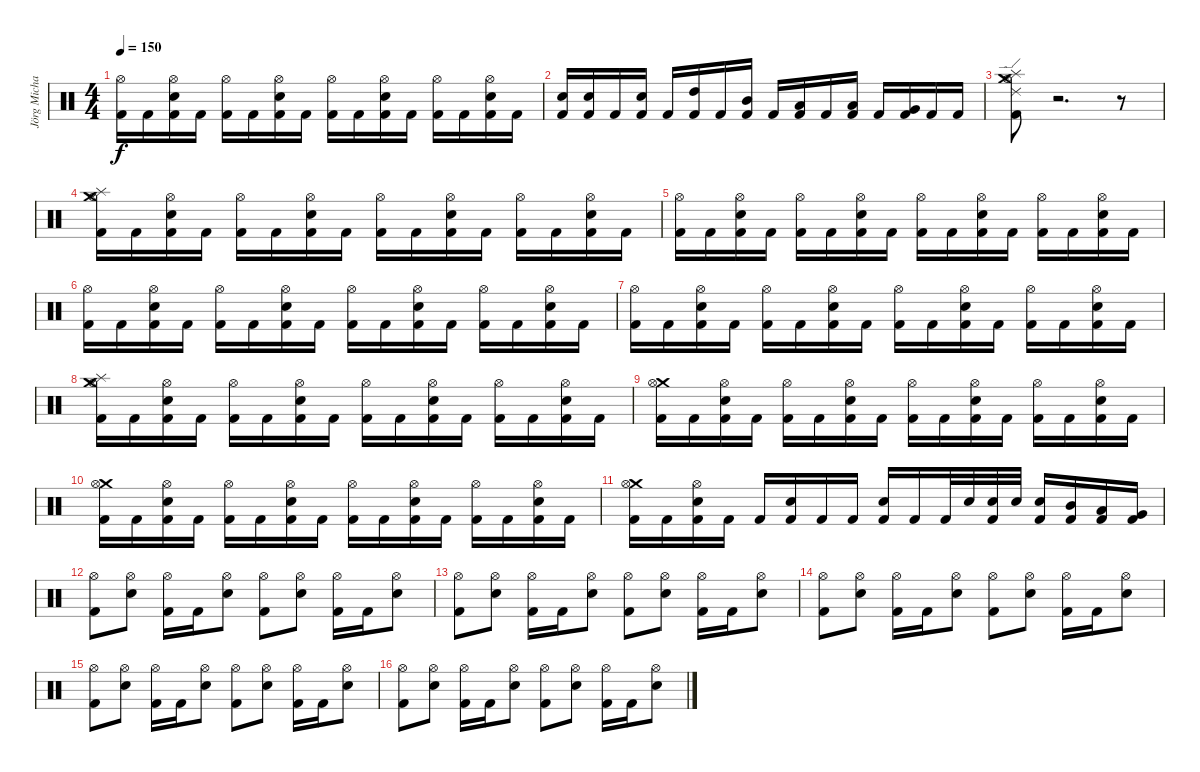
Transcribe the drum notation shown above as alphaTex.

\track ("Jörg Michael (Drums)" "Jörg Micha") {instrument percussion}
\staff {score}
\articulation defaults
\ts (4 4)
\tempo 150
\clef neutral
\ks c
("Hi-Hat (open)" "Kick (hit) 2").16{dy f} "Kick (hit) 2".16 ("Hi-Hat (open)" "Electric Snare (hit)" "Kick (hit) 2").16 "Kick (hit) 2".16 ("Hi-Hat (open)" "Kick (hit) 2").16 "Kick (hit) 2".16 ("Hi-Hat (open)" "Electric Snare (hit)" "Kick (hit) 2").16 "Kick (hit) 2".16 ("Hi-Hat (open)" "Kick (hit) 2").16 "Kick (hit) 2".16 ("Hi-Hat (open)" "Electric Snare (hit)" "Kick (hit) 2").16 "Kick (hit) 2".16 ("Hi-Hat (open)" "Kick (hit) 2").16 "Kick (hit) 2".16 ("Hi-Hat (open)" "Electric Snare (hit)" "Kick (hit) 2").16 "Kick (hit) 2".16 |
("Electric Snare (hit)" "Kick (hit) 2").16 ("Electric Snare (hit)" "Kick (hit) 2").16 "Kick (hit) 2".16 ("Electric Snare (hit)" "Kick (hit) 2").16 "Kick (hit) 2".16 ("High Tom (hit)" "Kick (hit) 2").16 "Kick (hit) 2".16 ("Mid Tom (hit)" "Kick (hit) 2").16 "Kick (hit) 2".16 ("Low Tom (hit)" "Kick (hit) 2").16 "Kick (hit) 2".16 ("Low Tom (hit)" "Kick (hit) 2").16 "Kick (hit) 2".16 ("Very Low Tom (hit)" "Kick (hit) 2").16 "Kick (hit) 2".16 "Kick (hit) 2".16 |
("Hi-Hat (open)" "Ride (edge) 2" "Crash medium (hit)" "Splash (hit)" "Kick (hit) 2").8 r.2{d} r.8 |
("Hi-Hat (open)" "Splash (hit)" "Crash medium (hit)" "Kick (hit) 2").16 "Kick (hit) 2".16 ("Hi-Hat (open)" "Electric Snare (hit)" "Kick (hit) 2").16 "Kick (hit) 2".16 ("Hi-Hat (open)" "Kick (hit) 2").16 "Kick (hit) 2".16 ("Hi-Hat (open)" "Electric Snare (hit)" "Kick (hit) 2").16 "Kick (hit) 2".16 ("Hi-Hat (open)" "Kick (hit) 2").16 "Kick (hit) 2".16 ("Hi-Hat (open)" "Electric Snare (hit)" "Kick (hit) 2").16 "Kick (hit) 2".16 ("Hi-Hat (open)" "Kick (hit) 2").16 "Kick (hit) 2".16 ("Hi-Hat (open)" "Electric Snare (hit)" "Kick (hit) 2").16 "Kick (hit) 2".16 |
("Hi-Hat (open)" "Kick (hit) 2").16 "Kick (hit) 2".16 ("Hi-Hat (open)" "Electric Snare (hit)" "Kick (hit) 2").16 "Kick (hit) 2".16 ("Hi-Hat (open)" "Kick (hit) 2").16 "Kick (hit) 2".16 ("Hi-Hat (open)" "Electric Snare (hit)" "Kick (hit) 2").16 "Kick (hit) 2".16 ("Hi-Hat (open)" "Kick (hit) 2").16 "Kick (hit) 2".16 ("Hi-Hat (open)" "Electric Snare (hit)" "Kick (hit) 2").16 "Kick (hit) 2".16 ("Hi-Hat (open)" "Kick (hit) 2").16 "Kick (hit) 2".16 ("Hi-Hat (open)" "Electric Snare (hit)" "Kick (hit) 2").16 "Kick (hit) 2".16 |
("Hi-Hat (open)" "Kick (hit) 2").16 "Kick (hit) 2".16 ("Hi-Hat (open)" "Electric Snare (hit)" "Kick (hit) 2").16 "Kick (hit) 2".16 ("Hi-Hat (open)" "Kick (hit) 2").16 "Kick (hit) 2".16 ("Hi-Hat (open)" "Electric Snare (hit)" "Kick (hit) 2").16 "Kick (hit) 2".16 ("Hi-Hat (open)" "Kick (hit) 2").16 "Kick (hit) 2".16 ("Hi-Hat (open)" "Electric Snare (hit)" "Kick (hit) 2").16 "Kick (hit) 2".16 ("Hi-Hat (open)" "Kick (hit) 2").16 "Kick (hit) 2".16 ("Hi-Hat (open)" "Electric Snare (hit)" "Kick (hit) 2").16 "Kick (hit) 2".16 |
("Hi-Hat (open)" "Kick (hit) 2").16 "Kick (hit) 2".16 ("Hi-Hat (open)" "Electric Snare (hit)" "Kick (hit) 2").16 "Kick (hit) 2".16 ("Hi-Hat (open)" "Kick (hit) 2").16 "Kick (hit) 2".16 ("Hi-Hat (open)" "Electric Snare (hit)" "Kick (hit) 2").16 "Kick (hit) 2".16 ("Hi-Hat (open)" "Kick (hit) 2").16 "Kick (hit) 2".16 ("Hi-Hat (open)" "Electric Snare (hit)" "Kick (hit) 2").16 "Kick (hit) 2".16 ("Hi-Hat (open)" "Kick (hit) 2").16 "Kick (hit) 2".16 ("Hi-Hat (open)" "Electric Snare (hit)" "Kick (hit) 2").16 "Kick (hit) 2".16 |
("Hi-Hat (open)" "Splash (hit)" "Crash medium (hit)" "Kick (hit) 2").16 "Kick (hit) 2".16 ("Hi-Hat (open)" "Electric Snare (hit)" "Kick (hit) 2").16 "Kick (hit) 2".16 ("Hi-Hat (open)" "Kick (hit) 2").16 "Kick (hit) 2".16 ("Hi-Hat (open)" "Electric Snare (hit)" "Kick (hit) 2").16 "Kick (hit) 2".16 ("Hi-Hat (open)" "Kick (hit) 2").16 "Kick (hit) 2".16 ("Hi-Hat (open)" "Electric Snare (hit)" "Kick (hit) 2").16 "Kick (hit) 2".16 ("Hi-Hat (open)" "Kick (hit) 2").16 "Kick (hit) 2".16 ("Hi-Hat (open)" "Electric Snare (hit)" "Kick (hit) 2").16 "Kick (hit) 2".16 |
("Crash medium (hit)" "Hi-Hat (open)" "Kick (hit) 2").16 "Kick (hit) 2".16 ("Hi-Hat (open)" "Electric Snare (hit)" "Kick (hit) 2").16 "Kick (hit) 2".16 ("Hi-Hat (open)" "Kick (hit) 2").16 "Kick (hit) 2".16 ("Hi-Hat (open)" "Electric Snare (hit)" "Kick (hit) 2").16 "Kick (hit) 2".16 ("Hi-Hat (open)" "Kick (hit) 2").16 "Kick (hit) 2".16 ("Hi-Hat (open)" "Electric Snare (hit)" "Kick (hit) 2").16 "Kick (hit) 2".16 ("Hi-Hat (open)" "Kick (hit) 2").16 "Kick (hit) 2".16 ("Hi-Hat (open)" "Electric Snare (hit)" "Kick (hit) 2").16 "Kick (hit) 2".16 |
("Crash medium (hit)" "Hi-Hat (open)" "Kick (hit) 2").16 "Kick (hit) 2".16 ("Hi-Hat (open)" "Electric Snare (hit)" "Kick (hit) 2").16 "Kick (hit) 2".16 ("Hi-Hat (open)" "Kick (hit) 2").16 "Kick (hit) 2".16 ("Hi-Hat (open)" "Electric Snare (hit)" "Kick (hit) 2").16 "Kick (hit) 2".16 ("Hi-Hat (open)" "Kick (hit) 2").16 "Kick (hit) 2".16 ("Hi-Hat (open)" "Electric Snare (hit)" "Kick (hit) 2").16 "Kick (hit) 2".16 ("Hi-Hat (open)" "Kick (hit) 2").16 "Kick (hit) 2".16 ("Hi-Hat (open)" "Electric Snare (hit)" "Kick (hit) 2").16 "Kick (hit) 2".16 |
("Crash medium (hit)" "Hi-Hat (open)" "Kick (hit) 2").16 "Kick (hit) 2".16 ("Hi-Hat (open)" "Electric Snare (hit)" "Kick (hit) 2").16 "Kick (hit) 2".16 "Kick (hit) 2".16 ("Electric Snare (hit)" "Kick (hit) 2").16 "Kick (hit) 2".16 "Kick (hit) 2".16 ("Electric Snare (hit)" "Kick (hit) 2").16 "Kick (hit) 2".16 "Kick (hit) 2".32 "Electric Snare (hit)".32 ("Electric Snare (hit)" "Kick (hit) 2").32 "Electric Snare (hit)".32 ("Electric Snare (hit)" "Kick (hit) 2").16 ("Mid Tom (hit)" "Kick (hit) 2").16 ("Low Tom (hit)" "Kick (hit) 2").16 ("Very Low Tom (hit)" "Kick (hit) 2").16 |
("Hi-Hat (open)" "Kick (hit) 2").8 ("Hi-Hat (open)" "Electric Snare (hit)").8 ("Hi-Hat (open)" "Kick (hit) 2").16 "Kick (hit) 2".16 ("Hi-Hat (open)" "Electric Snare (hit)").8 ("Hi-Hat (open)" "Kick (hit) 2").8 ("Hi-Hat (open)" "Electric Snare (hit)").8 ("Hi-Hat (open)" "Kick (hit) 2").16 "Kick (hit) 2".16 ("Hi-Hat (open)" "Electric Snare (hit)").8 |
("Hi-Hat (open)" "Kick (hit) 2").8 ("Hi-Hat (open)" "Electric Snare (hit)").8 ("Hi-Hat (open)" "Kick (hit) 2").16 "Kick (hit) 2".16 ("Hi-Hat (open)" "Electric Snare (hit)").8 ("Hi-Hat (open)" "Kick (hit) 2").8 ("Hi-Hat (open)" "Electric Snare (hit)").8 ("Hi-Hat (open)" "Kick (hit) 2").16 "Kick (hit) 2".16 ("Hi-Hat (open)" "Electric Snare (hit)").8 |
("Hi-Hat (open)" "Kick (hit) 2").8 ("Hi-Hat (open)" "Electric Snare (hit)").8 ("Hi-Hat (open)" "Kick (hit) 2").16 "Kick (hit) 2".16 ("Hi-Hat (open)" "Electric Snare (hit)").8 ("Hi-Hat (open)" "Kick (hit) 2").8 ("Hi-Hat (open)" "Electric Snare (hit)").8 ("Hi-Hat (open)" "Kick (hit) 2").16 "Kick (hit) 2".16 ("Hi-Hat (open)" "Electric Snare (hit)").8 |
("Hi-Hat (open)" "Kick (hit) 2").8 ("Hi-Hat (open)" "Electric Snare (hit)").8 ("Hi-Hat (open)" "Kick (hit) 2").16 "Kick (hit) 2".16 ("Hi-Hat (open)" "Electric Snare (hit)").8 ("Hi-Hat (open)" "Kick (hit) 2").8 ("Hi-Hat (open)" "Electric Snare (hit)").8 ("Hi-Hat (open)" "Kick (hit) 2").16 "Kick (hit) 2".16 ("Hi-Hat (open)" "Electric Snare (hit)").8 |
("Hi-Hat (open)" "Kick (hit) 2").8 ("Hi-Hat (open)" "Electric Snare (hit)").8 ("Hi-Hat (open)" "Kick (hit) 2").16 "Kick (hit) 2".16 ("Hi-Hat (open)" "Electric Snare (hit)").8 ("Hi-Hat (open)" "Kick (hit) 2").8 ("Hi-Hat (open)" "Electric Snare (hit)").8 ("Hi-Hat (open)" "Kick (hit) 2").16 "Kick (hit) 2".16 ("Hi-Hat (open)" "Electric Snare (hit)").8
